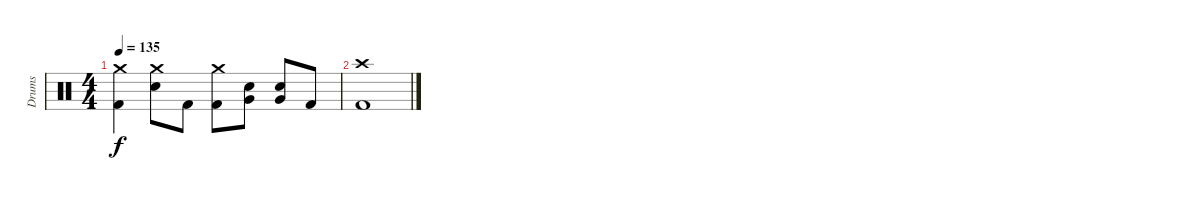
\track ("Drums" "Drums") {instrument percussion}
\staff {score}
\articulation defaults
\ts (4 4)
\tempo 135
\clef neutral
\ks c
("Crash medium (hit)" "Kick (hit) 2").4{dy f} ("Crash medium (hit)" "Electric Snare (hit)").8 "Kick (hit) 2".8 ("Crash medium (hit)" "Kick (hit) 2").8 ("Very Low Tom (hit)" "Electric Snare (hit)").8 ("Very Low Tom (hit)" "Electric Snare (hit)").8 "Kick (hit) 2".8 |
("Crash high (hit)" "Kick (hit) 2").1
